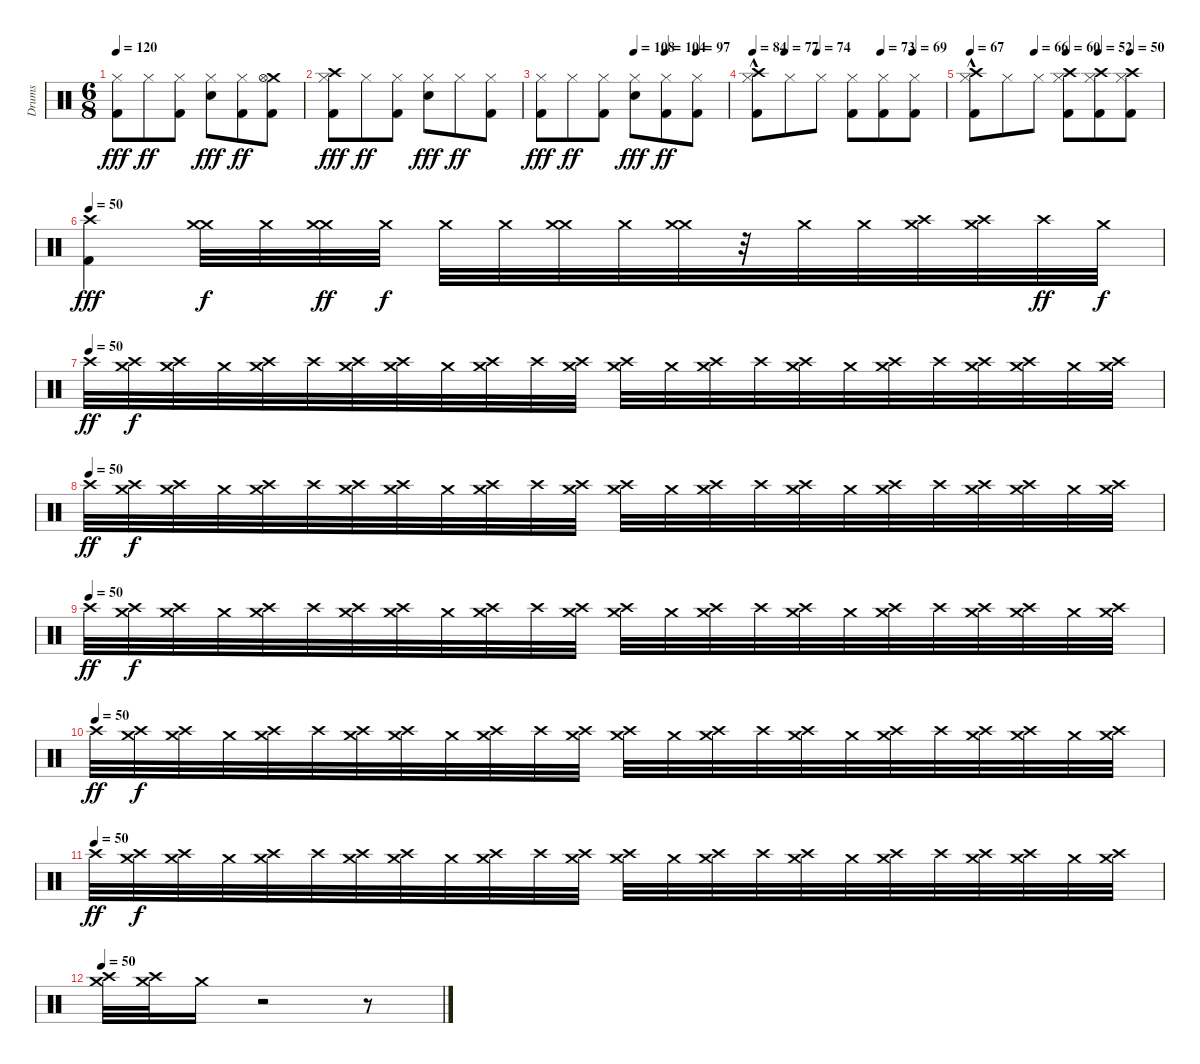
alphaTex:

\track ("Drums" "Drums") {instrument percussion}
\staff {score}
\articulation defaults
\ts (6 8)
\tempo 120
\clef neutral
\ks c
("Hi-Hat (closed)" "Kick (hit) 2").8{dy fff} "Hi-Hat (closed)".8{dy ff} ("Hi-Hat (closed)" "Kick (hit) 2").8 ("Hi-Hat (closed)" "Snare (hit) 2").8{dy fff} ("Hi-Hat (closed)" "Kick (hit) 2").8{dy ff} ("Crash medium (hit)" "Hi-Hat (open)" "Kick (hit) 2").8 |
("Crash high (hit)" "Hi-Hat (closed)" "Kick (hit) 2").8{dy fff} "Hi-Hat (closed)".8{dy ff} ("Hi-Hat (closed)" "Kick (hit) 2").8 ("Hi-Hat (closed)" "Snare (hit) 2").8{dy fff} "Hi-Hat (closed)".8{dy ff} ("Hi-Hat (closed)" "Kick (hit) 2").8 |
\tempo (108 0.5)
\tempo (104 0.6666666666666666)
\tempo (97 0.8333333333333334)
("Hi-Hat (closed)" "Kick (hit) 2").8{dy fff} "Hi-Hat (closed)".8{dy ff} ("Hi-Hat (closed)" "Kick (hit) 2").8 ("Hi-Hat (closed)" "Snare (hit) 2").8{dy fff} ("Hi-Hat (closed)" "Kick (hit) 2").8{dy ff} ("Hi-Hat (closed)" "Kick (hit) 2").8 |
\tempo 84
\tempo (77 0.16666666666666666)
\tempo (74 0.3333333333333333)
\tempo (73 0.6666666666666666)
\tempo (69 0.8333333333333334)
("Hi-Hat (closed)" "Kick (hit) 2"{hac} "Crash high (hit)").8 "Hi-Hat (closed)".8 "Hi-Hat (closed)".8 ("Hi-Hat (closed)" "Kick (hit) 2").8 ("Hi-Hat (closed)" "Kick (hit) 2").8 ("Hi-Hat (closed)" "Kick (hit) 2").8 |
\tempo 67
\tempo (66 0.3333333333333333)
\tempo (60 0.5)
\tempo (52 0.6666666666666666)
\tempo (50 0.8333333333333334)
("Hi-Hat (closed)" "Kick (hit) 2"{hac} "Crash high (hit)").8 "Hi-Hat (closed)".8 "Hi-Hat (closed)".8{volume 16} ("Hi-Hat (closed)" "Kick (hit) 2" "Crash high (hit)").8{volume 16} ("Crash high (hit)" "Hi-Hat (closed)" "Kick (hit) 2").8 ("Crash high (hit)" "Hi-Hat (closed)" "Kick (hit) 2").8 |
\tempo 50
("Kick (hit) 2" "Crash high (hit)").4{dy fff} ("Crash medium (hit)" "Crash medium (hit)").32{dy f volume 4} "Crash medium (hit)".32{volume 5} ("Crash medium (hit)" "Crash medium (hit)").32{dy ff volume 5} "Crash medium (hit)".32{dy f} "Crash medium (hit)".32{volume 6} "Crash medium (hit)".32{volume 6} ("Crash medium (hit)" "Crash medium (hit)").32{volume 6} "Crash medium (hit)".32{volume 8} ("Crash medium (hit)" "Crash medium (hit)").32{volume 8} r.32 "Crash medium (hit)".32{volume 8} "Crash medium (hit)".32{volume 9} ("Crash medium (hit)" "Crash high (hit)").32 ("Crash high (hit)" "Crash medium (hit)").32{volume 9} "Crash high (hit)".32{dy ff volume 8} "Crash medium (hit)".32{dy f} |
\tempo (50)
"Crash high (hit)".32{dy ff} ("Crash medium (hit)" "Crash high (hit)").32{dy f volume 7} ("Crash medium (hit)" "Crash high (hit)").32{volume 6} "Crash medium (hit)".32{volume 5} ("Crash high (hit)" "Crash medium (hit)").32 "Crash high (hit)".32 ("Crash medium (hit)" "Crash high (hit)").32{volume 5} ("Crash medium (hit)" "Crash high (hit)").32{volume 6} "Crash medium (hit)".32{volume 6} ("Crash high (hit)" "Crash medium (hit)").32{volume 4} "Crash high (hit)".32 ("Crash medium (hit)" "Crash high (hit)").32{volume 7} ("Crash medium (hit)" "Crash high (hit)").32{volume 8} "Crash medium (hit)".32{volume 5} ("Crash high (hit)" "Crash medium (hit)").32{volume 8} "Crash high (hit)".32{volume 2} ("Crash medium (hit)" "Crash high (hit)").32{volume 3} "Crash medium (hit)".32{volume 2} ("Crash high (hit)" "Crash medium (hit)").32 "Crash high (hit)".32 ("Crash medium (hit)" "Crash high (hit)").32 ("Crash medium (hit)" "Crash high (hit)").32 "Crash medium (hit)".32{volume 2} ("Crash high (hit)" "Crash medium (hit)").32{volume 2} |
\tempo (50)
"Crash high (hit)".32{dy ff} ("Crash medium (hit)" "Crash high (hit)").32{dy f volume 7} ("Crash medium (hit)" "Crash high (hit)").32{volume 6} "Crash medium (hit)".32{volume 5} ("Crash high (hit)" "Crash medium (hit)").32 "Crash high (hit)".32 ("Crash medium (hit)" "Crash high (hit)").32{volume 5} ("Crash medium (hit)" "Crash high (hit)").32{volume 6} "Crash medium (hit)".32{volume 6} ("Crash high (hit)" "Crash medium (hit)").32{volume 4} "Crash high (hit)".32 ("Crash medium (hit)" "Crash high (hit)").32{volume 7} ("Crash medium (hit)" "Crash high (hit)").32{volume 8} "Crash medium (hit)".32{volume 5} ("Crash high (hit)" "Crash medium (hit)").32{volume 8} "Crash high (hit)".32{volume 2} ("Crash medium (hit)" "Crash high (hit)").32{volume 3} "Crash medium (hit)".32{volume 2} ("Crash high (hit)" "Crash medium (hit)").32 "Crash high (hit)".32 ("Crash medium (hit)" "Crash high (hit)").32 ("Crash medium (hit)" "Crash high (hit)").32 "Crash medium (hit)".32{volume 2} ("Crash high (hit)" "Crash medium (hit)").32{volume 2} |
\tempo (50)
"Crash high (hit)".32{dy ff} ("Crash medium (hit)" "Crash high (hit)").32{dy f volume 7} ("Crash medium (hit)" "Crash high (hit)").32{volume 6} "Crash medium (hit)".32{volume 5} ("Crash high (hit)" "Crash medium (hit)").32 "Crash high (hit)".32 ("Crash medium (hit)" "Crash high (hit)").32{volume 5} ("Crash medium (hit)" "Crash high (hit)").32{volume 6} "Crash medium (hit)".32{volume 6} ("Crash high (hit)" "Crash medium (hit)").32{volume 4} "Crash high (hit)".32 ("Crash medium (hit)" "Crash high (hit)").32{volume 7} ("Crash medium (hit)" "Crash high (hit)").32{volume 8} "Crash medium (hit)".32{volume 5} ("Crash high (hit)" "Crash medium (hit)").32{volume 8} "Crash high (hit)".32{volume 2} ("Crash medium (hit)" "Crash high (hit)").32{volume 3} "Crash medium (hit)".32{volume 2} ("Crash high (hit)" "Crash medium (hit)").32 "Crash high (hit)".32 ("Crash medium (hit)" "Crash high (hit)").32 ("Crash medium (hit)" "Crash high (hit)").32 "Crash medium (hit)".32{volume 2} ("Crash high (hit)" "Crash medium (hit)").32{volume 2} |
\tempo (50)
"Crash high (hit)".32{dy ff} ("Crash medium (hit)" "Crash high (hit)").32{dy f volume 7} ("Crash medium (hit)" "Crash high (hit)").32{volume 6} "Crash medium (hit)".32{volume 5} ("Crash high (hit)" "Crash medium (hit)").32 "Crash high (hit)".32 ("Crash medium (hit)" "Crash high (hit)").32{volume 5} ("Crash medium (hit)" "Crash high (hit)").32{volume 6} "Crash medium (hit)".32{volume 6} ("Crash high (hit)" "Crash medium (hit)").32{volume 4} "Crash high (hit)".32 ("Crash medium (hit)" "Crash high (hit)").32{volume 7} ("Crash medium (hit)" "Crash high (hit)").32{volume 8} "Crash medium (hit)".32{volume 5} ("Crash high (hit)" "Crash medium (hit)").32{volume 8} "Crash high (hit)".32{volume 2} ("Crash medium (hit)" "Crash high (hit)").32{volume 3} "Crash medium (hit)".32{volume 2} ("Crash high (hit)" "Crash medium (hit)").32 "Crash high (hit)".32 ("Crash medium (hit)" "Crash high (hit)").32 ("Crash medium (hit)" "Crash high (hit)").32 "Crash medium (hit)".32{volume 2} ("Crash high (hit)" "Crash medium (hit)").32{volume 2} |
\tempo (50)
"Crash high (hit)".32{dy ff} ("Crash medium (hit)" "Crash high (hit)").32{dy f volume 7} ("Crash medium (hit)" "Crash high (hit)").32{volume 6} "Crash medium (hit)".32{volume 5} ("Crash high (hit)" "Crash medium (hit)").32 "Crash high (hit)".32 ("Crash medium (hit)" "Crash high (hit)").32{volume 5} ("Crash medium (hit)" "Crash high (hit)").32{volume 6} "Crash medium (hit)".32{volume 6} ("Crash high (hit)" "Crash medium (hit)").32{volume 4} "Crash high (hit)".32 ("Crash medium (hit)" "Crash high (hit)").32{volume 7} ("Crash medium (hit)" "Crash high (hit)").32{volume 8} "Crash medium (hit)".32{volume 5} ("Crash high (hit)" "Crash medium (hit)").32{volume 8} "Crash high (hit)".32{volume 2} ("Crash medium (hit)" "Crash high (hit)").32{volume 3} "Crash medium (hit)".32{volume 2} ("Crash high (hit)" "Crash medium (hit)").32 "Crash high (hit)".32 ("Crash medium (hit)" "Crash high (hit)").32 ("Crash medium (hit)" "Crash high (hit)").32 "Crash medium (hit)".32{volume 2} ("Crash high (hit)" "Crash medium (hit)").32{volume 2} |
\tempo 50
("Crash medium (hit)" "Crash high (hit)").32{volume 2} ("Crash medium (hit)" "Crash high (hit)").32{volume 1} "Crash medium (hit)".16{volume 1} r.2 r.8
